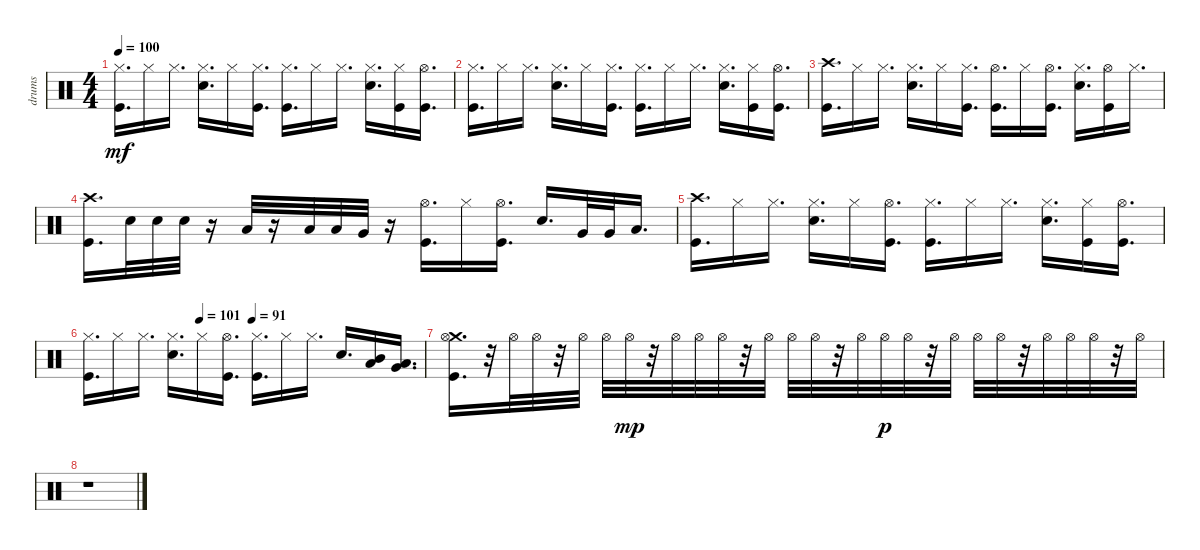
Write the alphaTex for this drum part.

\track ("drums" "drums") {instrument percussion}
\staff {score}
\articulation defaults
\ts (4 4)
\tempo 100
\clef neutral
\ks c
("Hi-Hat (closed)" "Kick (hit)").16{d dy mf} "Hi-Hat (closed)".16 "Hi-Hat (closed)".16{d} ("Snare (hit) 2" "Hi-Hat (closed)").16{d} "Hi-Hat (closed)".16 ("Kick (hit)" "Hi-Hat (closed)").16{d} ("Kick (hit)" "Hi-Hat (closed)").16{d} "Hi-Hat (closed)".16 "Hi-Hat (closed)".16{d} ("Snare (hit) 2" "Hi-Hat (closed)").16{d} ("Kick (hit)" "Hi-Hat (closed)").16 ("Hi-Hat (open)" "Kick (hit)").16{d} |
("Hi-Hat (closed)" "Kick (hit)").16{d} "Hi-Hat (closed)".16 "Hi-Hat (closed)".16{d} ("Snare (hit) 2" "Hi-Hat (closed)").16{d} "Hi-Hat (closed)".16 ("Kick (hit)" "Hi-Hat (closed)").16{d} ("Kick (hit)" "Hi-Hat (closed)").16{d} "Hi-Hat (closed)".16 "Hi-Hat (closed)".16{d} ("Snare (hit) 2" "Hi-Hat (closed)").16{d} ("Kick (hit)" "Hi-Hat (closed)").16 ("Hi-Hat (open)" "Kick (hit)").16{d} |
("Crash high (hit)" "Kick (hit)").16{d} "Hi-Hat (closed)".16 "Hi-Hat (closed)".16{d} ("Snare (hit) 2" "Hi-Hat (closed)").16{d} "Hi-Hat (closed)".16 ("Kick (hit)" "Hi-Hat (closed)").16{d} ("Hi-Hat (open)" "Kick (hit)").16{d} "Hi-Hat (closed)".16 ("Hi-Hat (open)" "Kick (hit)").16{d} ("Snare (hit) 2" "Hi-Hat (closed)").16{d} ("Hi-Hat (open)" "Kick (hit)").16 "Hi-Hat (closed)".16{d} |
("Crash high (hit)" "Kick (hit)").16{d} "Snare (hit) 2".32 "Snare (hit) 2".32 "Snare (hit) 2".32 r.16 "Low Tom (hit)".32 r.16 "Low Tom (hit)".32 "Low Tom (hit)".32 "Very Low Tom (hit)".32 r.16 ("Hi-Hat (open)" "Kick (hit)").16{d} "Hi-Hat (closed)".16 ("Hi-Hat (open)" "Kick (hit)").16{d} "Snare (hit) 2".16{d} "Very Low Tom (hit)".32 "Very Low Tom (hit)".32 "Low Floor Tom (hit)".16{d} |
("Crash high (hit)" "Kick (hit)").16{d} "Hi-Hat (closed)".16 "Hi-Hat (closed)".16{d} ("Snare (hit) 2" "Hi-Hat (closed)").16{d} "Hi-Hat (closed)".16 ("Hi-Hat (open)" "Kick (hit)").16{d} ("Kick (hit)" "Hi-Hat (closed)").16{d} "Hi-Hat (closed)".16 "Hi-Hat (closed)".16{d} ("Snare (hit) 2" "Hi-Hat (closed)").16{d} ("Kick (hit)" "Hi-Hat (closed)").16 ("Hi-Hat (open)" "Kick (hit)").16{d} |
\tempo (101 0.3333333333333333)
\tempo (91 0.4895833333333333)
("Hi-Hat (closed)" "Kick (hit)").16{d} "Hi-Hat (closed)".16 "Hi-Hat (closed)".16{d} ("Snare (hit) 2" "Hi-Hat (closed)").16{d} "Hi-Hat (closed)".16 ("Hi-Hat (open)" "Kick (hit)").16{d} ("Kick (hit)" "Hi-Hat (closed)").16{d} "Hi-Hat (closed)".16 "Hi-Hat (closed)".16{d} "Snare (hit) 2".16{d} ("Mid Tom (hit)" "Low Tom (hit)").16 ("Low Floor Tom (hit)" "Very Low Tom (hit)").16{d} |
("Crash medium (hit)" "Kick (hit)" "Hi-Hat (open)").16{d} r.32 "Hi-Hat (open)".32 "Hi-Hat (open)".32 r.32 "Hi-Hat (open)".32 "Hi-Hat (open)".32 "Hi-Hat (open)".32{dy mp} r.32 "Hi-Hat (open)".32 "Hi-Hat (open)".32 "Hi-Hat (open)".32 r.32 "Hi-Hat (open)".32 "Hi-Hat (open)".32 "Hi-Hat (open)".32 r.32 "Hi-Hat (open)".32 "Hi-Hat (open)".32{dy p} "Hi-Hat (open)".32 r.32 "Hi-Hat (open)".32 "Hi-Hat (open)".32 "Hi-Hat (open)".32 r.32 "Hi-Hat (open)".32 "Hi-Hat (open)".32 "Hi-Hat (open)".32 r.32 "Hi-Hat (open)".32 |
r.1
